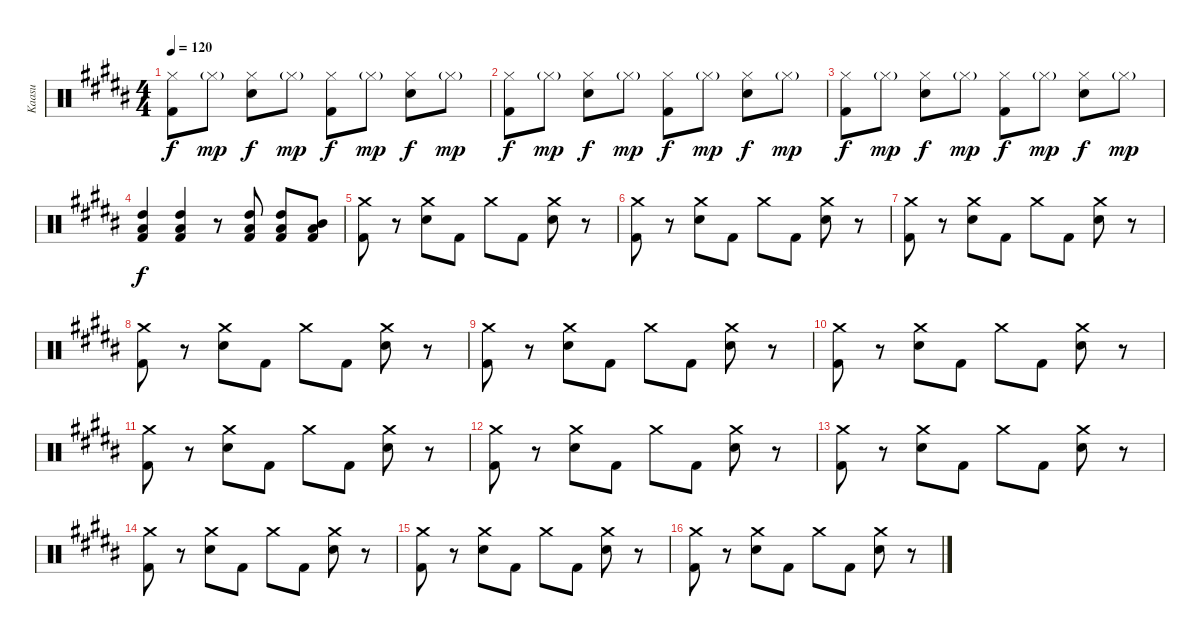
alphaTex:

\track ("Kaasu" "Kaasu") {instrument percussion}
\staff {score}
\articulation defaults
\ts (4 4)
\tempo 120
\clef neutral
\ks b
("Hi-Hat (closed)" "Kick (hit) 2").8{dy f} "Hi-Hat (closed)"{g}.8{dy mp} ("Hi-Hat (closed)" "Snare (hit) 2").8{dy f} "Hi-Hat (closed)"{g}.8{dy mp} ("Hi-Hat (closed)" "Kick (hit) 2").8{dy f} "Hi-Hat (closed)"{g}.8{dy mp} ("Hi-Hat (closed)" "Snare (hit) 2").8{dy f} "Hi-Hat (closed)"{g}.8{dy mp} |
("Hi-Hat (closed)" "Kick (hit) 2").8{dy f} "Hi-Hat (closed)"{g}.8{dy mp} ("Hi-Hat (closed)" "Snare (hit) 2").8{dy f} "Hi-Hat (closed)"{g}.8{dy mp} ("Hi-Hat (closed)" "Kick (hit) 2").8{dy f} "Hi-Hat (closed)"{g}.8{dy mp} ("Hi-Hat (closed)" "Snare (hit) 2").8{dy f} "Hi-Hat (closed)"{g}.8{dy mp} |
("Hi-Hat (closed)" "Kick (hit) 2").8{dy f} "Hi-Hat (closed)"{g}.8{dy mp} ("Hi-Hat (closed)" "Snare (hit) 2").8{dy f} "Hi-Hat (closed)"{g}.8{dy mp} ("Hi-Hat (closed)" "Kick (hit) 2").8{dy f} "Hi-Hat (closed)"{g}.8{dy mp} ("Hi-Hat (closed)" "Snare (hit) 2").8{dy f} "Hi-Hat (closed)"{g}.8{dy mp} |
("High Tom (hit)" "Low Tom (hit)" "Kick (hit) 2").4{dy f} ("High Tom (hit)" "Low Tom (hit)" "Kick (hit) 2").4 r.8 ("High Tom (hit)" "Low Tom (hit)" "Kick (hit) 2").8 ("High Tom (hit)" "Low Tom (hit)" "Kick (hit) 2").8 ("Mid Tom (hit)" "Low Tom (hit)" "Kick (hit) 2").8 |
("Crash medium (hit)" "Kick (hit) 2").8{volume 13} r.8 ("Crash medium (hit)" "Snare (hit) 2").8 "Kick (hit) 2".8 "Crash medium (hit)".8 "Kick (hit) 2".8 ("Crash medium (hit)" "Snare (hit) 2").8 r.8 |
("Crash medium (hit)" "Kick (hit) 2").8{volume 13} r.8 ("Crash medium (hit)" "Snare (hit) 2").8 "Kick (hit) 2".8 "Crash medium (hit)".8 "Kick (hit) 2".8 ("Crash medium (hit)" "Snare (hit) 2").8 r.8 |
("Crash medium (hit)" "Kick (hit) 2").8{volume 13} r.8 ("Crash medium (hit)" "Snare (hit) 2").8 "Kick (hit) 2".8 "Crash medium (hit)".8 "Kick (hit) 2".8 ("Crash medium (hit)" "Snare (hit) 2").8 r.8 |
("Crash medium (hit)" "Kick (hit) 2").8{volume 13} r.8 ("Crash medium (hit)" "Snare (hit) 2").8 "Kick (hit) 2".8 "Crash medium (hit)".8 "Kick (hit) 2".8 ("Crash medium (hit)" "Snare (hit) 2").8 r.8 |
("Crash medium (hit)" "Kick (hit) 2").8{volume 13} r.8 ("Crash medium (hit)" "Snare (hit) 2").8 "Kick (hit) 2".8 "Crash medium (hit)".8 "Kick (hit) 2".8 ("Crash medium (hit)" "Snare (hit) 2").8 r.8 |
("Crash medium (hit)" "Kick (hit) 2").8{volume 13} r.8 ("Crash medium (hit)" "Snare (hit) 2").8 "Kick (hit) 2".8 "Crash medium (hit)".8 "Kick (hit) 2".8 ("Crash medium (hit)" "Snare (hit) 2").8 r.8 |
("Crash medium (hit)" "Kick (hit) 2").8{volume 13} r.8 ("Crash medium (hit)" "Snare (hit) 2").8 "Kick (hit) 2".8 "Crash medium (hit)".8 "Kick (hit) 2".8 ("Crash medium (hit)" "Snare (hit) 2").8 r.8 |
("Crash medium (hit)" "Kick (hit) 2").8{volume 13} r.8 ("Crash medium (hit)" "Snare (hit) 2").8 "Kick (hit) 2".8 "Crash medium (hit)".8 "Kick (hit) 2".8 ("Crash medium (hit)" "Snare (hit) 2").8 r.8 |
("Crash medium (hit)" "Kick (hit) 2").8{volume 13} r.8 ("Crash medium (hit)" "Snare (hit) 2").8 "Kick (hit) 2".8 "Crash medium (hit)".8 "Kick (hit) 2".8 ("Crash medium (hit)" "Snare (hit) 2").8 r.8 |
("Crash medium (hit)" "Kick (hit) 2").8{volume 13} r.8 ("Crash medium (hit)" "Snare (hit) 2").8 "Kick (hit) 2".8 "Crash medium (hit)".8 "Kick (hit) 2".8 ("Crash medium (hit)" "Snare (hit) 2").8 r.8 |
("Crash medium (hit)" "Kick (hit) 2").8{volume 13} r.8 ("Crash medium (hit)" "Snare (hit) 2").8 "Kick (hit) 2".8 "Crash medium (hit)".8 "Kick (hit) 2".8 ("Crash medium (hit)" "Snare (hit) 2").8 r.8 |
("Crash medium (hit)" "Kick (hit) 2").8{volume 13} r.8 ("Crash medium (hit)" "Snare (hit) 2").8 "Kick (hit) 2".8 "Crash medium (hit)".8 "Kick (hit) 2".8 ("Crash medium (hit)" "Snare (hit) 2").8 r.8
